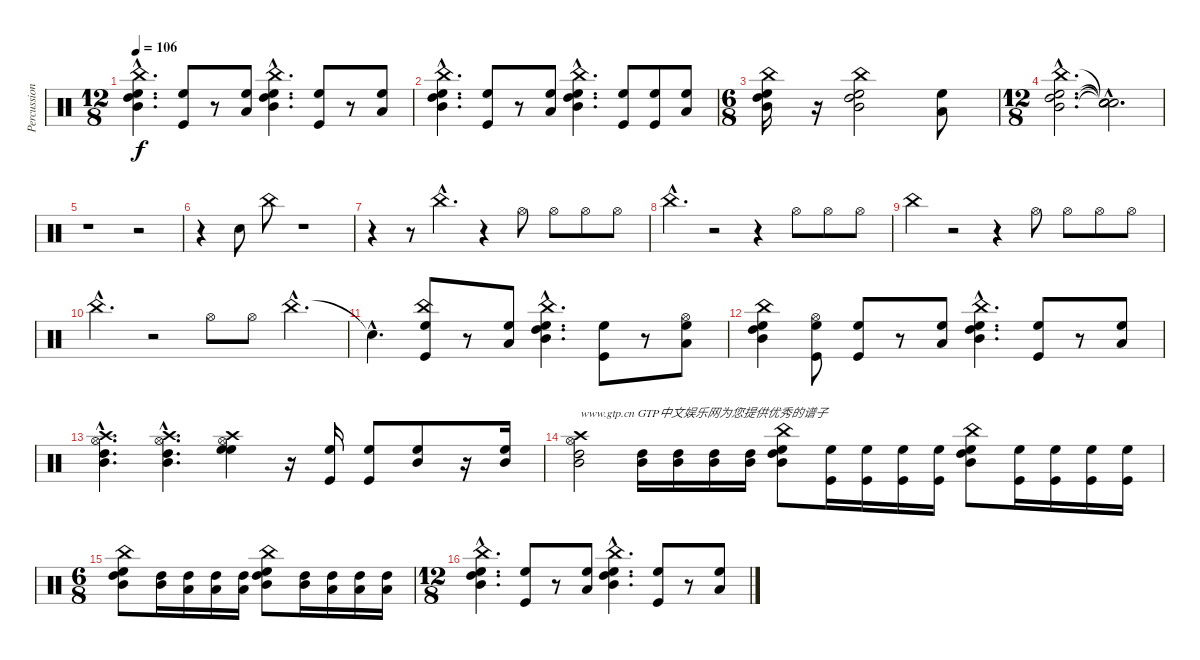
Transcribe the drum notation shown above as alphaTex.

\track ("Percussioni" "Percussion") {instrument percussion}
\staff {score}
\articulation defaults
\ts (12 8)
\tempo 106
\clef neutral
\ks c
("Mid Tom (hit)"{hac} "High Tom (hit)"{hac} "High Floor Tom (hit)"{hac} "China (hit)"{hac}).4{d dy f} ("Kick (hit)" "High Floor Tom (hit)").8 r.8 ("Low Tom (hit)" "High Floor Tom (hit)").8 ("Mid Tom (hit)"{hac} "High Tom (hit)"{hac} "High Floor Tom (hit)"{hac} "China (hit)"{hac}).4{d} ("Kick (hit)" "High Floor Tom (hit)").8 r.8 ("Low Tom (hit)" "High Floor Tom (hit)").8 |
("Mid Tom (hit)"{hac} "High Tom (hit)"{hac} "High Floor Tom (hit)"{hac} "China (hit)"{hac}).4{d} ("Kick (hit)" "High Floor Tom (hit)").8 r.8 ("Low Tom (hit)" "High Floor Tom (hit)").8 ("Mid Tom (hit)"{hac} "High Tom (hit)"{hac} "High Floor Tom (hit)"{hac} "China (hit)"{hac}).4{d} ("Kick (hit)" "High Floor Tom (hit)").8 ("Kick (hit)" "High Floor Tom (hit)").8 ("Low Tom (hit)" "High Floor Tom (hit)").8 |
\ts (6 8)
("Mid Tom (hit)" "High Tom (hit)" "High Floor Tom (hit)" "China (hit)").16 r.16 ("Mid Tom (hit)" "High Tom (hit)" "High Floor Tom (hit)" "China (hit)").2 ("Low Tom (hit)" "High Floor Tom (hit)").8 |
\ts (12 8)
("Mid Tom (hit)"{hac} "High Tom (hit)"{hac} "High Floor Tom (hit)"{hac} "China (hit)"{hac}).2{d} ("Snare (hit)"{hac t} "Snare (hit)"{hac t} "Snare (hit)"{hac t} "Snare (hit)"{hac t}).2{d} |
r.1 r.2 |
r.4 "Electric Snare (hit)".8 "China (hit)".8 r.1 |
r.4 r.8 "China (hit)"{hac}.4{d} r.4 "Hi-Hat (open)".8 "Hi-Hat (open)".8 "Hi-Hat (open)".8 "Hi-Hat (open)".8 |
"China (hit)"{hac}.4{d} r.2 r.4 "Hi-Hat (open)".8 "Hi-Hat (open)".8 "Hi-Hat (open)".8 |
"China (hit)".4 r.2 r.4 "Hi-Hat (open)".8 "Hi-Hat (open)".8 "Hi-Hat (open)".8 "Hi-Hat (open)".8 |
"China (hit)"{hac}.4{d} r.2 "Hi-Hat (open)".8 "Hi-Hat (open)".8 "China (hit)"{hac}.4{d} |
"Snare (hit)"{hac t}.4{d} ("Kick (hit)" "High Floor Tom (hit)" "China (hit)").8 r.8 ("Low Tom (hit)" "High Floor Tom (hit)").8 ("Mid Tom (hit)"{hac} "High Tom (hit)"{hac} "High Floor Tom (hit)"{hac} "China (hit)"{hac}).4{d} ("Kick (hit)" "High Floor Tom (hit)").8 r.8 ("Low Tom (hit)" "High Floor Tom (hit)" "Hi-Hat (open)").8 |
("Mid Tom (hit)" "High Tom (hit)" "High Floor Tom (hit)" "China (hit)").4 ("Kick (hit)" "High Floor Tom (hit)" "Hi-Hat (open)").8 ("Kick (hit)" "High Floor Tom (hit)").8 r.8 ("Low Tom (hit)" "High Floor Tom (hit)").8 ("Mid Tom (hit)"{hac} "High Tom (hit)"{hac} "High Floor Tom (hit)"{hac} "China (hit)"{hac}).4{d} ("Kick (hit)" "High Floor Tom (hit)").8 r.8 ("Low Tom (hit)" "High Floor Tom (hit)").8 |
("Mid Tom (hit)"{hac} "High Tom (hit)"{hac} "Hi-Hat (open)"{hac} "Crash high (hit)"{hac}).4{d} ("Mid Tom (hit)"{hac} "High Tom (hit)"{hac} "Hi-Hat (open)"{hac} "Crash high (hit)"{hac}).4{d} ("High Floor Tom (hit)" "High Floor Tom (hit)" "Hi-Hat (open)" "Crash high (hit)").4 r.16 ("Kick (hit)" "High Floor Tom (hit)").16 ("Kick (hit)" "High Floor Tom (hit)").8 ("Mid Tom (hit)" "High Floor Tom (hit)").8 r.16 ("Mid Tom (hit)" "High Floor Tom (hit)").16 |
("Mid Tom (hit)" "High Tom (hit)" "Hi-Hat (open)" "Crash high (hit)").2{txt "www.gtp.cn GTP中文娱乐网为您提供优秀的谱子"} ("Mid Tom (hit)" "High Tom (hit)").16 ("Mid Tom (hit)" "High Tom (hit)").16 ("Mid Tom (hit)" "High Tom (hit)").16 ("Mid Tom (hit)" "High Tom (hit)").16 ("Mid Tom (hit)" "High Tom (hit)" "High Floor Tom (hit)" "China (hit)").8 ("Kick (hit)" "High Floor Tom (hit)").16 ("Kick (hit)" "High Floor Tom (hit)").16 ("Kick (hit)" "High Floor Tom (hit)").16 ("Kick (hit)" "High Floor Tom (hit)").16 ("Mid Tom (hit)" "High Tom (hit)" "High Floor Tom (hit)" "China (hit)").8 ("Kick (hit)" "High Floor Tom (hit)").16 ("Kick (hit)" "High Floor Tom (hit)").16 ("Kick (hit)" "High Floor Tom (hit)").16 ("Kick (hit)" "High Floor Tom (hit)").16 |
\ts (6 8)
("Mid Tom (hit)" "High Tom (hit)" "High Floor Tom (hit)" "China (hit)").8 ("Mid Tom (hit)" "High Tom (hit)").16 ("Low Tom (hit)" "High Tom (hit)").16 ("Low Tom (hit)" "High Tom (hit)").16 ("Low Tom (hit)" "High Tom (hit)").16 ("Mid Tom (hit)" "High Tom (hit)" "High Floor Tom (hit)" "China (hit)").8 ("Mid Tom (hit)" "High Tom (hit)").16 ("Low Tom (hit)" "High Tom (hit)").16 ("Low Tom (hit)" "High Tom (hit)").16 ("Low Tom (hit)" "High Tom (hit)").16 |
\ts (12 8)
("Mid Tom (hit)"{hac} "High Tom (hit)"{hac} "High Floor Tom (hit)"{hac} "China (hit)"{hac}).4{d} ("Kick (hit)" "High Floor Tom (hit)").8 r.8 ("Low Tom (hit)" "High Floor Tom (hit)").8 ("Mid Tom (hit)"{hac} "High Tom (hit)"{hac} "High Floor Tom (hit)"{hac} "China (hit)"{hac}).4{d} ("Kick (hit)" "High Floor Tom (hit)").8 r.8 ("Low Tom (hit)" "High Floor Tom (hit)").8
